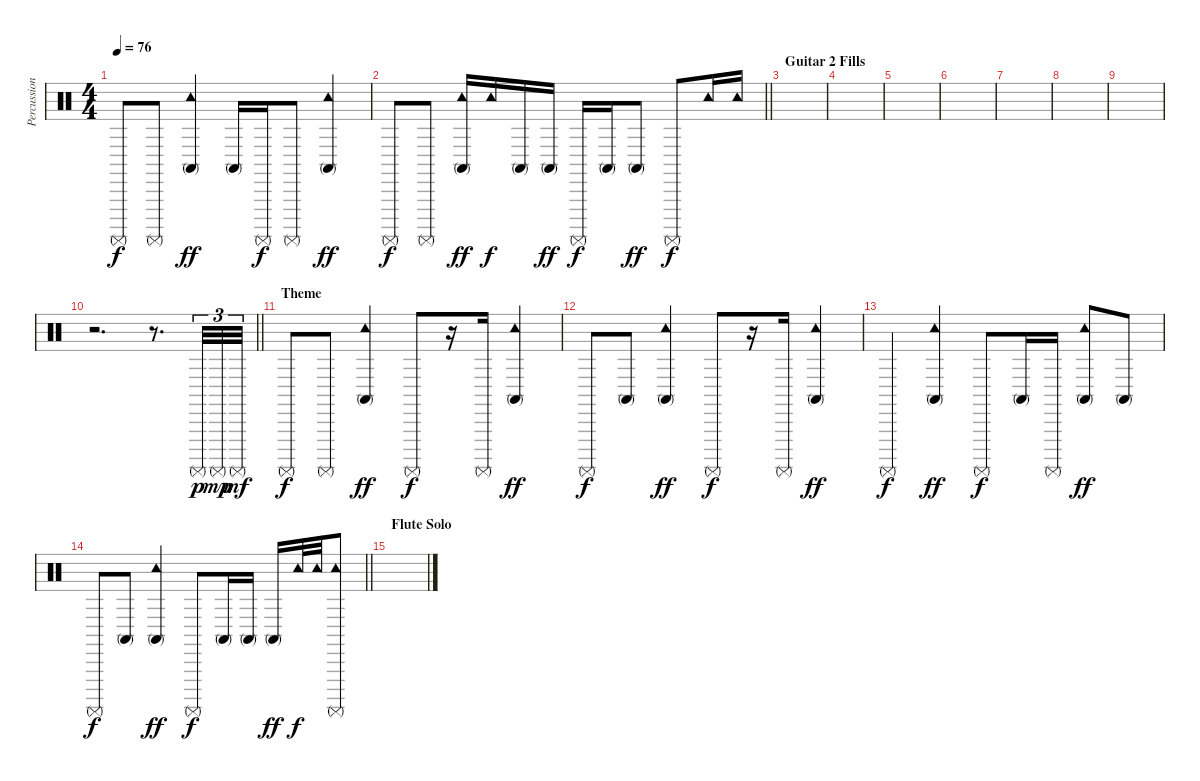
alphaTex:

\track ("Percussions" "Percussion") {instrument percussion}
\staff {score}
\articulation defaults
\ts (4 4)
\tempo 76
\clef neutral
\ks c "Surdo (mute)".8{dy f} "Surdo (mute)".8
("Tambourine (hit)" "Conga high (mute)").4{dy ff} "Conga high (mute)".16 "Surdo (mute)".16{dy f} "Surdo (mute)".8 ("Tambourine (hit)" "Conga high (mute)").4{dy ff} |
\barLineRight lightlight "Surdo (mute)".8{dy f} "Surdo (mute)".8
("Tambourine (hit)" "Conga high (mute)").16{dy ff} "Tambourine (hit)".16{dy f} "Conga high (mute)".16 "Conga high (mute)".16{dy ff} "Surdo (mute)".16{dy f} "Conga high (mute)".16 "Conga high (mute)".8{dy ff} "Surdo (mute)".8{dy f} "Tambourine (hit)".16 "Tambourine (hit)".16 |
\section ("" "Guitar 2 Fills")
|
|
|
|
|
|
|
\barLineRight lightlight
r.2{d} r.8{d} "Surdo (mute)".32{tu (3 2) dy p} "Surdo (mute)".32{tu (3 2) dy mp} "Surdo (mute)".32{tu (3 2) dy mf} |
\section ("" "Theme")
"Surdo (mute)".8{dy f} "Surdo (mute)".8 ("Tambourine (hit)" "Conga high (mute)").4{dy ff} "Surdo (mute)".8{dy f} r.16 "Surdo (mute)".16 ("Tambourine (hit)" "Conga high (mute)").4{dy ff} |
"Surdo (mute)".8{dy f} "Conga high (mute)".8 ("Tambourine (hit)" "Conga high (mute)").4{dy ff} "Surdo (mute)".8{dy f} r.16 "Surdo (mute)".16 ("Tambourine (hit)" "Conga high (mute)").4{dy ff} |
"Surdo (mute)".4{dy f} ("Tambourine (hit)" "Conga high (mute)").4{dy ff} "Surdo (mute)".8{dy f} "Conga high (mute)".16 "Surdo (mute)".16 ("Tambourine (hit)" "Conga high (mute)").8{dy ff} "Conga high (mute)".8 |
\barLineRight lightlight "Surdo (mute)".8{dy f} "Conga high (mute)".8
("Tambourine (hit)" "Conga high (mute)").4{dy ff} "Surdo (mute)".8{dy f} "Conga high (mute)".16 "Conga high (mute)".16 "Conga high (mute)".16{dy ff} "Tambourine (hit)".32{dy f} "Tambourine (hit)".32 ("Tambourine (hit)" "Surdo (mute)").8 |
\section ("" "Flute Solo")
